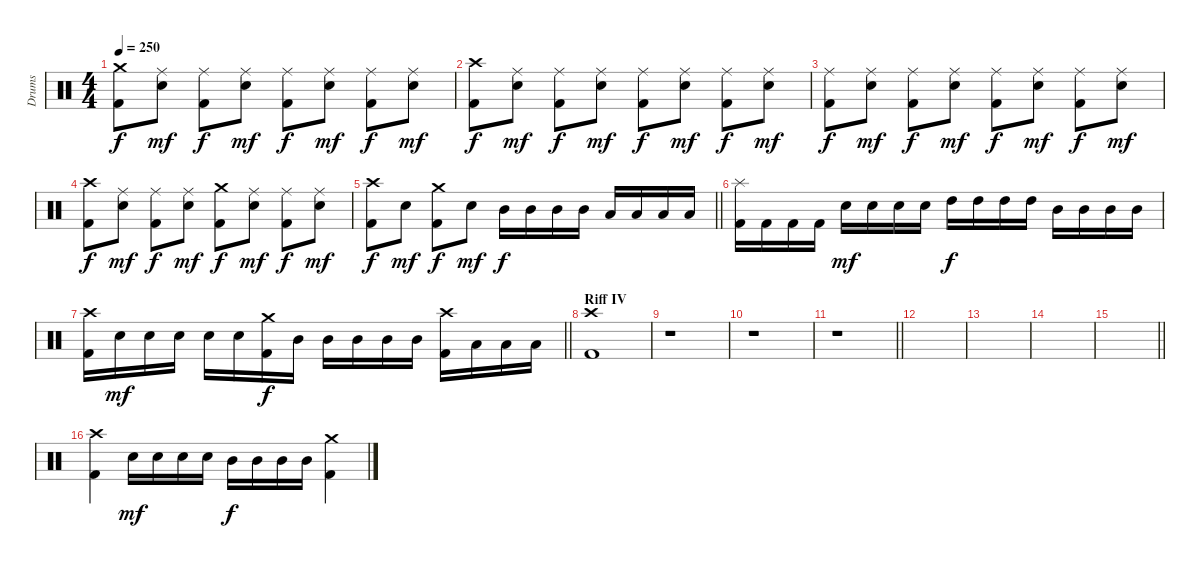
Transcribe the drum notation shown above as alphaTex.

\track ("Drums" "Drums") {instrument percussion}
\staff {score}
\articulation defaults
\ts (4 4)
\tempo 250
\clef neutral
\ks c
("Crash medium (hit)" "Kick (hit) 2").8{dy f} ("Ride (middle)" "Electric Snare (hit)").8{dy mf} ("Ride (middle)" "Kick (hit) 2").8{dy f} ("Ride (middle)" "Electric Snare (hit)").8{dy mf} ("Ride (middle)" "Kick (hit) 2").8{dy f} ("Ride (middle)" "Electric Snare (hit)").8{dy mf} ("Ride (middle)" "Kick (hit) 2").8{dy f} ("Ride (middle)" "Electric Snare (hit)").8{dy mf} |
("Crash high (hit)" "Kick (hit) 2").8{dy f} ("Ride (middle)" "Electric Snare (hit)").8{dy mf} ("Ride (middle)" "Kick (hit) 2").8{dy f} ("Ride (middle)" "Electric Snare (hit)").8{dy mf} ("Ride (middle)" "Kick (hit) 2").8{dy f} ("Ride (middle)" "Electric Snare (hit)").8{dy mf} ("Ride (middle)" "Kick (hit) 2").8{dy f} ("Ride (middle)" "Electric Snare (hit)").8{dy mf} |
("Ride (middle)" "Kick (hit) 2").8{dy f} ("Ride (middle)" "Electric Snare (hit)").8{dy mf} ("Ride (middle)" "Kick (hit) 2").8{dy f} ("Ride (middle)" "Electric Snare (hit)").8{dy mf} ("Ride (middle)" "Kick (hit) 2").8{dy f} ("Ride (middle)" "Electric Snare (hit)").8{dy mf} ("Ride (middle)" "Kick (hit) 2").8{dy f} ("Ride (middle)" "Electric Snare (hit)").8{dy mf} |
("Crash high (hit)" "Kick (hit) 2").8{dy f} ("Ride (middle)" "Electric Snare (hit)").8{dy mf} ("Ride (middle)" "Kick (hit) 2").8{dy f} ("Ride (middle)" "Electric Snare (hit)").8{dy mf} ("Crash medium (hit)" "Kick (hit) 2").8{dy f} ("Ride (middle)" "Electric Snare (hit)").8{dy mf} ("Ride (middle)" "Kick (hit) 2").8{dy f} ("Ride (middle)" "Electric Snare (hit)").8{dy mf} |
\barLineRight lightlight
("Crash high (hit)" "Kick (hit) 2").8{dy f} "Electric Snare (hit)".8{dy mf} ("Crash medium (hit)" "Kick (hit) 2").8{dy f} "Electric Snare (hit)".8{dy mf} "Mid Tom (hit)".16{dy f} "Mid Tom (hit)".16 "Mid Tom (hit)".16 "Mid Tom (hit)".16 "Low Tom (hit)".16 "Low Tom (hit)".16 "Low Tom (hit)".16 "Low Tom (hit)".16 |
\section ("" "")
("Splash (hit)" "Kick (hit) 2").16 "Kick (hit) 2".16 "Kick (hit) 2".16 "Kick (hit) 2".16 "Electric Snare (hit)".16{dy mf} "Electric Snare (hit)".16 "Electric Snare (hit)".16 "Electric Snare (hit)".16 "High Tom (hit)".16{dy f} "High Tom (hit)".16 "High Tom (hit)".16 "High Tom (hit)".16 "Mid Tom (hit)".16 "Mid Tom (hit)".16 "Mid Tom (hit)".16 "Mid Tom (hit)".16 |
\barLineRight lightlight
("Crash high (hit)" "Kick (hit) 2").16 "Electric Snare (hit)".16{dy mf} "Electric Snare (hit)".16 "Electric Snare (hit)".16 "Electric Snare (hit)".16 "Electric Snare (hit)".16 ("Crash medium (hit)" "Kick (hit) 2").16{dy f} "Mid Tom (hit)".16 "Mid Tom (hit)".16 "Mid Tom (hit)".16 "Mid Tom (hit)".16 "Mid Tom (hit)".16 ("Crash high (hit)" "Kick (hit) 2").16 "Low Tom (hit)".16 "Low Tom (hit)".16 "Low Tom (hit)".16 |
\section ("" "Riff IV")
("Crash high (hit)" "Kick (hit) 2").1 |
r.1 |
r.1 |
\barLineRight lightlight
r.1 |
|
|
|
\barLineRight lightlight
|
("Crash high (hit)" "Kick (hit) 2").4 "Electric Snare (hit)".16{dy mf} "Electric Snare (hit)".16 "Electric Snare (hit)".16 "Electric Snare (hit)".16 "Mid Tom (hit)".16{dy f} "Mid Tom (hit)".16 "Mid Tom (hit)".16 "Mid Tom (hit)".16 ("Crash medium (hit)" "Kick (hit) 2").4
